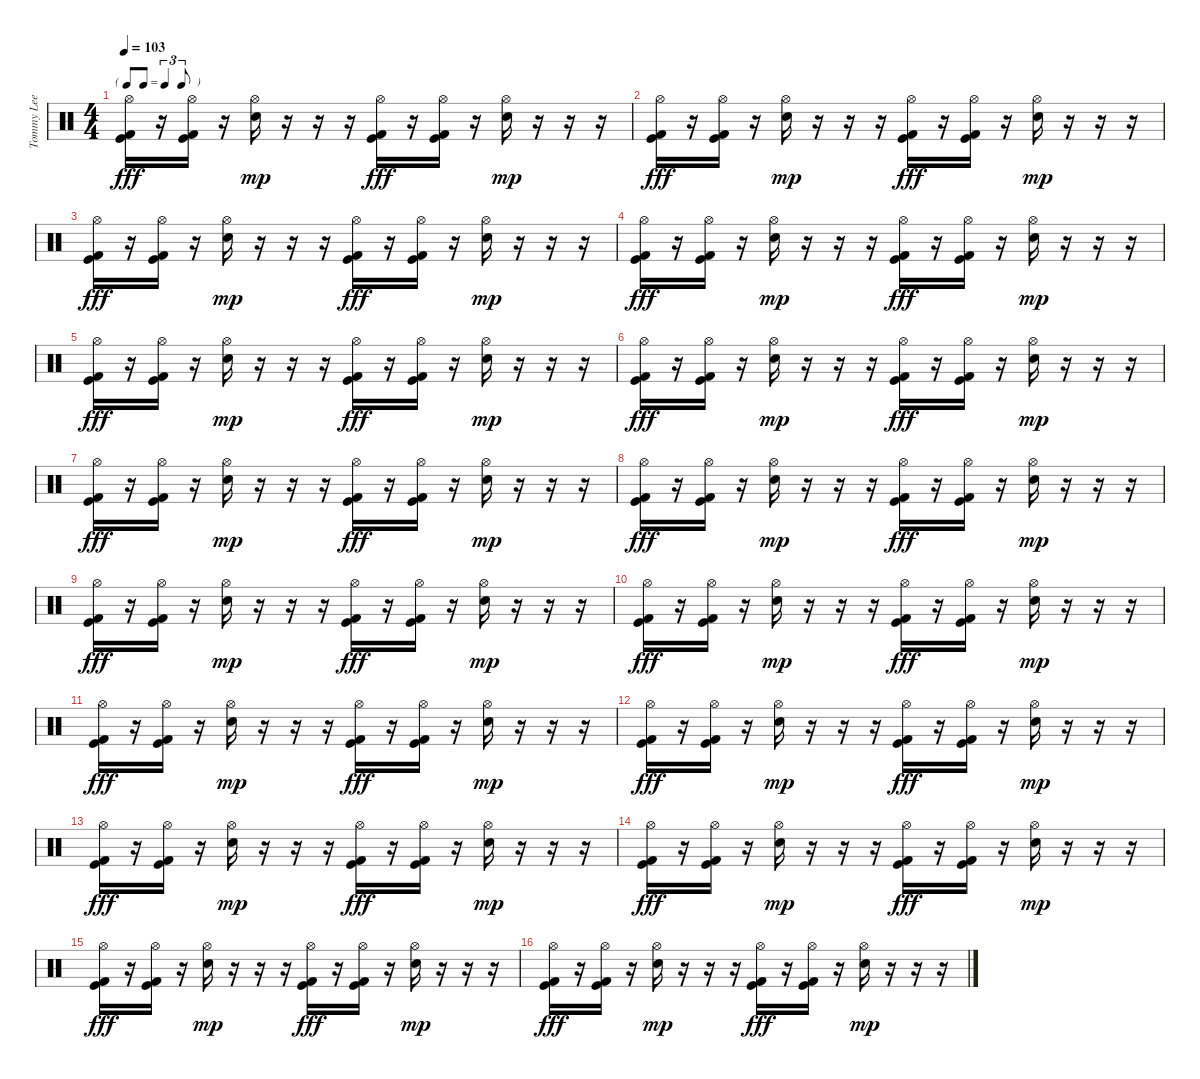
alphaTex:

\track ("Tommy Lee" "Tommy Lee") {instrument percussion}
\staff {score}
\articulation defaults
\ts (4 4)
\tf triplet8th
\tempo 103
\clef neutral
\ks c
("Hi-Hat (open)" "Kick (hit) 2" "Kick (hit)").16{dy fff} r.16 ("Hi-Hat (open)" "Kick (hit) 2" "Kick (hit)").16 r.16 ("Hi-Hat (open)" "Snare (hit) 2").16{dy mp} r.16 r.16 r.16 ("Hi-Hat (open)" "Kick (hit) 2" "Kick (hit)").16{dy fff} r.16 ("Hi-Hat (open)" "Kick (hit) 2" "Kick (hit)").16 r.16 ("Hi-Hat (open)" "Snare (hit) 2").16{dy mp} r.16 r.16 r.16 |
("Hi-Hat (open)" "Kick (hit) 2" "Kick (hit)").16{dy fff} r.16 ("Hi-Hat (open)" "Kick (hit) 2" "Kick (hit)").16 r.16 ("Hi-Hat (open)" "Snare (hit) 2").16{dy mp} r.16 r.16 r.16 ("Hi-Hat (open)" "Kick (hit) 2" "Kick (hit)").16{dy fff} r.16 ("Hi-Hat (open)" "Kick (hit) 2" "Kick (hit)").16 r.16 ("Hi-Hat (open)" "Snare (hit) 2").16{dy mp} r.16 r.16 r.16 |
("Hi-Hat (open)" "Kick (hit) 2" "Kick (hit)").16{dy fff} r.16 ("Hi-Hat (open)" "Kick (hit) 2" "Kick (hit)").16 r.16 ("Hi-Hat (open)" "Snare (hit) 2").16{dy mp} r.16 r.16 r.16 ("Hi-Hat (open)" "Kick (hit) 2" "Kick (hit)").16{dy fff} r.16 ("Hi-Hat (open)" "Kick (hit) 2" "Kick (hit)").16 r.16 ("Hi-Hat (open)" "Snare (hit) 2").16{dy mp} r.16 r.16 r.16 |
("Hi-Hat (open)" "Kick (hit) 2" "Kick (hit)").16{dy fff} r.16 ("Hi-Hat (open)" "Kick (hit) 2" "Kick (hit)").16 r.16 ("Hi-Hat (open)" "Snare (hit) 2").16{dy mp} r.16 r.16 r.16 ("Hi-Hat (open)" "Kick (hit) 2" "Kick (hit)").16{dy fff} r.16 ("Hi-Hat (open)" "Kick (hit) 2" "Kick (hit)").16 r.16 ("Hi-Hat (open)" "Snare (hit) 2").16{dy mp} r.16 r.16 r.16 |
("Hi-Hat (open)" "Kick (hit) 2" "Kick (hit)").16{dy fff} r.16 ("Hi-Hat (open)" "Kick (hit) 2" "Kick (hit)").16 r.16 ("Hi-Hat (open)" "Snare (hit) 2").16{dy mp} r.16 r.16 r.16 ("Hi-Hat (open)" "Kick (hit) 2" "Kick (hit)").16{dy fff} r.16 ("Hi-Hat (open)" "Kick (hit) 2" "Kick (hit)").16 r.16 ("Hi-Hat (open)" "Snare (hit) 2").16{dy mp} r.16 r.16 r.16 |
("Hi-Hat (open)" "Kick (hit) 2" "Kick (hit)").16{dy fff} r.16 ("Hi-Hat (open)" "Kick (hit) 2" "Kick (hit)").16 r.16 ("Hi-Hat (open)" "Snare (hit) 2").16{dy mp} r.16 r.16 r.16 ("Hi-Hat (open)" "Kick (hit) 2" "Kick (hit)").16{dy fff} r.16 ("Hi-Hat (open)" "Kick (hit) 2" "Kick (hit)").16 r.16 ("Hi-Hat (open)" "Snare (hit) 2").16{dy mp} r.16 r.16 r.16 |
("Hi-Hat (open)" "Kick (hit) 2" "Kick (hit)").16{dy fff} r.16 ("Hi-Hat (open)" "Kick (hit) 2" "Kick (hit)").16 r.16 ("Hi-Hat (open)" "Snare (hit) 2").16{dy mp} r.16 r.16 r.16 ("Hi-Hat (open)" "Kick (hit) 2" "Kick (hit)").16{dy fff} r.16 ("Hi-Hat (open)" "Kick (hit) 2" "Kick (hit)").16 r.16 ("Hi-Hat (open)" "Snare (hit) 2").16{dy mp} r.16 r.16 r.16 |
("Hi-Hat (open)" "Kick (hit) 2" "Kick (hit)").16{dy fff} r.16 ("Hi-Hat (open)" "Kick (hit) 2" "Kick (hit)").16 r.16 ("Hi-Hat (open)" "Snare (hit) 2").16{dy mp} r.16 r.16 r.16 ("Hi-Hat (open)" "Kick (hit) 2" "Kick (hit)").16{dy fff} r.16 ("Hi-Hat (open)" "Kick (hit) 2" "Kick (hit)").16 r.16 ("Hi-Hat (open)" "Snare (hit) 2").16{dy mp} r.16 r.16 r.16 |
("Hi-Hat (open)" "Kick (hit) 2" "Kick (hit)").16{dy fff} r.16 ("Hi-Hat (open)" "Kick (hit) 2" "Kick (hit)").16 r.16 ("Hi-Hat (open)" "Snare (hit) 2").16{dy mp} r.16 r.16 r.16 ("Hi-Hat (open)" "Kick (hit) 2" "Kick (hit)").16{dy fff} r.16 ("Hi-Hat (open)" "Kick (hit) 2" "Kick (hit)").16 r.16 ("Hi-Hat (open)" "Snare (hit) 2").16{dy mp} r.16 r.16 r.16 |
("Hi-Hat (open)" "Kick (hit) 2" "Kick (hit)").16{dy fff} r.16 ("Hi-Hat (open)" "Kick (hit) 2" "Kick (hit)").16 r.16 ("Hi-Hat (open)" "Snare (hit) 2").16{dy mp} r.16 r.16 r.16 ("Hi-Hat (open)" "Kick (hit) 2" "Kick (hit)").16{dy fff} r.16 ("Hi-Hat (open)" "Kick (hit) 2" "Kick (hit)").16 r.16 ("Hi-Hat (open)" "Snare (hit) 2").16{dy mp} r.16 r.16 r.16 |
("Hi-Hat (open)" "Kick (hit) 2" "Kick (hit)").16{dy fff} r.16 ("Hi-Hat (open)" "Kick (hit) 2" "Kick (hit)").16 r.16 ("Hi-Hat (open)" "Snare (hit) 2").16{dy mp} r.16 r.16 r.16 ("Hi-Hat (open)" "Kick (hit) 2" "Kick (hit)").16{dy fff} r.16 ("Hi-Hat (open)" "Kick (hit) 2" "Kick (hit)").16 r.16 ("Hi-Hat (open)" "Snare (hit) 2").16{dy mp} r.16 r.16 r.16 |
("Hi-Hat (open)" "Kick (hit) 2" "Kick (hit)").16{dy fff} r.16 ("Hi-Hat (open)" "Kick (hit) 2" "Kick (hit)").16 r.16 ("Hi-Hat (open)" "Snare (hit) 2").16{dy mp} r.16 r.16 r.16 ("Hi-Hat (open)" "Kick (hit) 2" "Kick (hit)").16{dy fff} r.16 ("Hi-Hat (open)" "Kick (hit) 2" "Kick (hit)").16 r.16 ("Hi-Hat (open)" "Snare (hit) 2").16{dy mp} r.16 r.16 r.16 |
("Hi-Hat (open)" "Kick (hit) 2" "Kick (hit)").16{dy fff} r.16 ("Hi-Hat (open)" "Kick (hit) 2" "Kick (hit)").16 r.16 ("Hi-Hat (open)" "Snare (hit) 2").16{dy mp} r.16 r.16 r.16 ("Hi-Hat (open)" "Kick (hit) 2" "Kick (hit)").16{dy fff} r.16 ("Hi-Hat (open)" "Kick (hit) 2" "Kick (hit)").16 r.16 ("Hi-Hat (open)" "Snare (hit) 2").16{dy mp} r.16 r.16 r.16 |
("Hi-Hat (open)" "Kick (hit) 2" "Kick (hit)").16{dy fff} r.16 ("Hi-Hat (open)" "Kick (hit) 2" "Kick (hit)").16 r.16 ("Hi-Hat (open)" "Snare (hit) 2").16{dy mp} r.16 r.16 r.16 ("Hi-Hat (open)" "Kick (hit) 2" "Kick (hit)").16{dy fff} r.16 ("Hi-Hat (open)" "Kick (hit) 2" "Kick (hit)").16 r.16 ("Hi-Hat (open)" "Snare (hit) 2").16{dy mp} r.16 r.16 r.16 |
("Hi-Hat (open)" "Kick (hit) 2" "Kick (hit)").16{dy fff} r.16 ("Hi-Hat (open)" "Kick (hit) 2" "Kick (hit)").16 r.16 ("Hi-Hat (open)" "Snare (hit) 2").16{dy mp} r.16 r.16 r.16 ("Hi-Hat (open)" "Kick (hit) 2" "Kick (hit)").16{dy fff} r.16 ("Hi-Hat (open)" "Kick (hit) 2" "Kick (hit)").16 r.16 ("Hi-Hat (open)" "Snare (hit) 2").16{dy mp} r.16 r.16 r.16 |
("Hi-Hat (open)" "Kick (hit) 2" "Kick (hit)").16{dy fff} r.16 ("Hi-Hat (open)" "Kick (hit) 2" "Kick (hit)").16 r.16 ("Hi-Hat (open)" "Snare (hit) 2").16{dy mp} r.16 r.16 r.16 ("Hi-Hat (open)" "Kick (hit) 2" "Kick (hit)").16{dy fff} r.16 ("Hi-Hat (open)" "Kick (hit) 2" "Kick (hit)").16 r.16 ("Hi-Hat (open)" "Snare (hit) 2").16{dy mp} r.16 r.16 r.16
